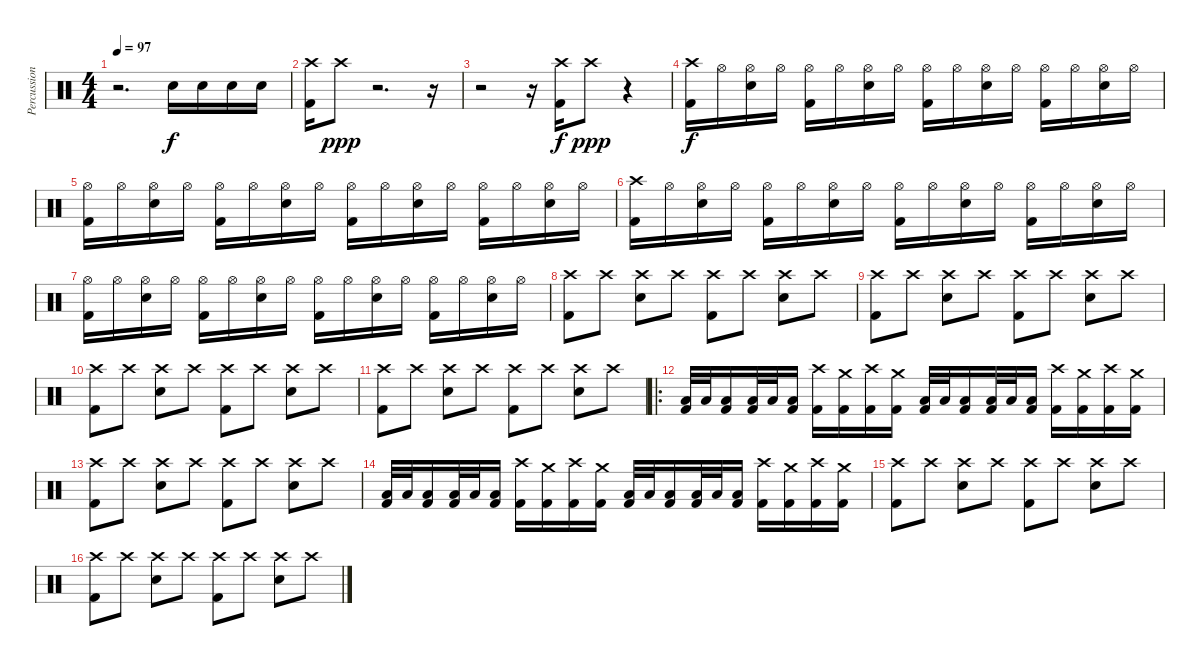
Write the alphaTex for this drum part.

\track ("Percussion" "Percussion") {instrument percussion}
\staff {score}
\articulation defaults
\ts (4 4)
\tempo 97
\clef neutral
\ks c
r.2{d dy f} "Snare (hit) 2".16 "Snare (hit) 2".16 "Snare (hit) 2".16 "Snare (hit) 2".16 |
("Crash high (hit)" "Kick (hit) 2").16 "Crash high (hit)".8{dy ppp} r.2{d} r.16 |
r.2 r.16 ("Crash high (hit)" "Kick (hit) 2").16{dy f} "Crash high (hit)".8{dy ppp} r.4 |
("Crash high (hit)" "Kick (hit) 2").16{dy f} "Hi-Hat (open)".16 ("Hi-Hat (open)" "Snare (hit) 2").16 "Hi-Hat (open)".16 ("Hi-Hat (open)" "Kick (hit) 2").16 "Hi-Hat (open)".16 ("Hi-Hat (open)" "Snare (hit) 2").16 "Hi-Hat (open)".16 ("Hi-Hat (open)" "Kick (hit) 2").16 "Hi-Hat (open)".16 ("Hi-Hat (open)" "Snare (hit) 2").16 "Hi-Hat (open)".16 ("Hi-Hat (open)" "Kick (hit) 2").16 "Hi-Hat (open)".16 ("Hi-Hat (open)" "Snare (hit) 2").16 "Hi-Hat (open)".16 |
("Hi-Hat (open)" "Kick (hit) 2").16 "Hi-Hat (open)".16 ("Hi-Hat (open)" "Snare (hit) 2").16 "Hi-Hat (open)".16 ("Hi-Hat (open)" "Kick (hit) 2").16 "Hi-Hat (open)".16 ("Hi-Hat (open)" "Snare (hit) 2").16 "Hi-Hat (open)".16 ("Hi-Hat (open)" "Kick (hit) 2").16 "Hi-Hat (open)".16 ("Hi-Hat (open)" "Snare (hit) 2").16 "Hi-Hat (open)".16 ("Hi-Hat (open)" "Kick (hit) 2").16 "Hi-Hat (open)".16 ("Hi-Hat (open)" "Snare (hit) 2").16 "Hi-Hat (open)".16 |
("Crash high (hit)" "Kick (hit) 2").16 "Hi-Hat (open)".16 ("Hi-Hat (open)" "Snare (hit) 2").16 "Hi-Hat (open)".16 ("Hi-Hat (open)" "Kick (hit) 2").16 "Hi-Hat (open)".16 ("Hi-Hat (open)" "Snare (hit) 2").16 "Hi-Hat (open)".16 ("Hi-Hat (open)" "Kick (hit) 2").16 "Hi-Hat (open)".16 ("Hi-Hat (open)" "Snare (hit) 2").16 "Hi-Hat (open)".16 ("Hi-Hat (open)" "Kick (hit) 2").16 "Hi-Hat (open)".16 ("Hi-Hat (open)" "Snare (hit) 2").16 "Hi-Hat (open)".16 |
("Hi-Hat (open)" "Kick (hit) 2").16 "Hi-Hat (open)".16 ("Hi-Hat (open)" "Snare (hit) 2").16 "Hi-Hat (open)".16 ("Hi-Hat (open)" "Kick (hit) 2").16 "Hi-Hat (open)".16 ("Hi-Hat (open)" "Snare (hit) 2").16 "Hi-Hat (open)".16 ("Hi-Hat (open)" "Kick (hit) 2").16 "Hi-Hat (open)".16 ("Hi-Hat (open)" "Snare (hit) 2").16 "Hi-Hat (open)".16 ("Hi-Hat (open)" "Kick (hit) 2").16 "Hi-Hat (open)".16 ("Hi-Hat (open)" "Snare (hit) 2").16 "Hi-Hat (open)".16 |
("Crash high (hit)" "Kick (hit) 2").8 "Crash high (hit)".8 ("Crash high (hit)" "Snare (hit) 2").8 "Crash high (hit)".8 ("Crash high (hit)" "Kick (hit) 2").8 "Crash high (hit)".8 ("Crash high (hit)" "Snare (hit) 2").8 "Crash high (hit)".8 |
("Crash high (hit)" "Kick (hit) 2").8 "Crash high (hit)".8 ("Crash high (hit)" "Snare (hit) 2").8 "Crash high (hit)".8 ("Crash high (hit)" "Kick (hit) 2").8 "Crash high (hit)".8 ("Crash high (hit)" "Snare (hit) 2").8 "Crash high (hit)".8 |
("Crash high (hit)" "Kick (hit) 2").8 "Crash high (hit)".8 ("Crash high (hit)" "Snare (hit) 2").8 "Crash high (hit)".8 ("Crash high (hit)" "Kick (hit) 2").8 "Crash high (hit)".8 ("Crash high (hit)" "Snare (hit) 2").8 "Crash high (hit)".8 |
("Crash high (hit)" "Kick (hit) 2").8 "Crash high (hit)".8 ("Crash high (hit)" "Snare (hit) 2").8 "Crash high (hit)".8 ("Crash high (hit)" "Kick (hit) 2").8 "Crash high (hit)".8 ("Crash high (hit)" "Snare (hit) 2").8 "Crash high (hit)".8 |
\ro
("Low Floor Tom (hit)" "Kick (hit) 2").32 "Low Floor Tom (hit)".32 ("Low Floor Tom (hit)" "Kick (hit) 2").16 ("Low Floor Tom (hit)" "Kick (hit) 2").32 "Low Floor Tom (hit)".32 ("Low Floor Tom (hit)" "Kick (hit) 2").16 ("Crash high (hit)" "Kick (hit) 2").16 ("Crash medium (hit)" "Kick (hit) 2").16 ("Crash high (hit)" "Kick (hit) 2").16 ("Crash medium (hit)" "Kick (hit) 2").16 ("Low Floor Tom (hit)" "Kick (hit) 2").32 "Low Floor Tom (hit)".32 ("Low Floor Tom (hit)" "Kick (hit) 2").16 ("Low Floor Tom (hit)" "Kick (hit) 2").32 "Low Floor Tom (hit)".32 ("Low Floor Tom (hit)" "Kick (hit) 2").16 ("Crash high (hit)" "Kick (hit) 2").16 ("Crash medium (hit)" "Kick (hit) 2").16 ("Crash high (hit)" "Kick (hit) 2").16 ("Crash medium (hit)" "Kick (hit) 2").16 |
("Crash high (hit)" "Kick (hit) 2").8 "Crash high (hit)".8 ("Crash high (hit)" "Snare (hit) 2").8 "Crash high (hit)".8 ("Crash high (hit)" "Kick (hit) 2").8 "Crash high (hit)".8 ("Crash high (hit)" "Snare (hit) 2").8 "Crash high (hit)".8 |
("Low Floor Tom (hit)" "Kick (hit) 2").32 "Low Floor Tom (hit)".32 ("Low Floor Tom (hit)" "Kick (hit) 2").16 ("Low Floor Tom (hit)" "Kick (hit) 2").32 "Low Floor Tom (hit)".32 ("Low Floor Tom (hit)" "Kick (hit) 2").16 ("Crash high (hit)" "Kick (hit) 2").16 ("Crash medium (hit)" "Kick (hit) 2").16 ("Crash high (hit)" "Kick (hit) 2").16 ("Crash medium (hit)" "Kick (hit) 2").16 ("Low Floor Tom (hit)" "Kick (hit) 2").32 "Low Floor Tom (hit)".32 ("Low Floor Tom (hit)" "Kick (hit) 2").16 ("Low Floor Tom (hit)" "Kick (hit) 2").32 "Low Floor Tom (hit)".32 ("Low Floor Tom (hit)" "Kick (hit) 2").16 ("Crash high (hit)" "Kick (hit) 2").16 ("Crash medium (hit)" "Kick (hit) 2").16 ("Crash high (hit)" "Kick (hit) 2").16 ("Crash medium (hit)" "Kick (hit) 2").16 |
("Crash high (hit)" "Kick (hit) 2").8 "Crash high (hit)".8 ("Crash high (hit)" "Snare (hit) 2").8 "Crash high (hit)".8 ("Crash high (hit)" "Kick (hit) 2").8 "Crash high (hit)".8 ("Crash high (hit)" "Snare (hit) 2").8 "Crash high (hit)".8 |
("Crash high (hit)" "Kick (hit) 2").8 "Crash high (hit)".8 ("Crash high (hit)" "Snare (hit) 2").8 "Crash high (hit)".8 ("Crash high (hit)" "Kick (hit) 2").8 "Crash high (hit)".8 ("Crash high (hit)" "Snare (hit) 2").8 "Crash high (hit)".8
